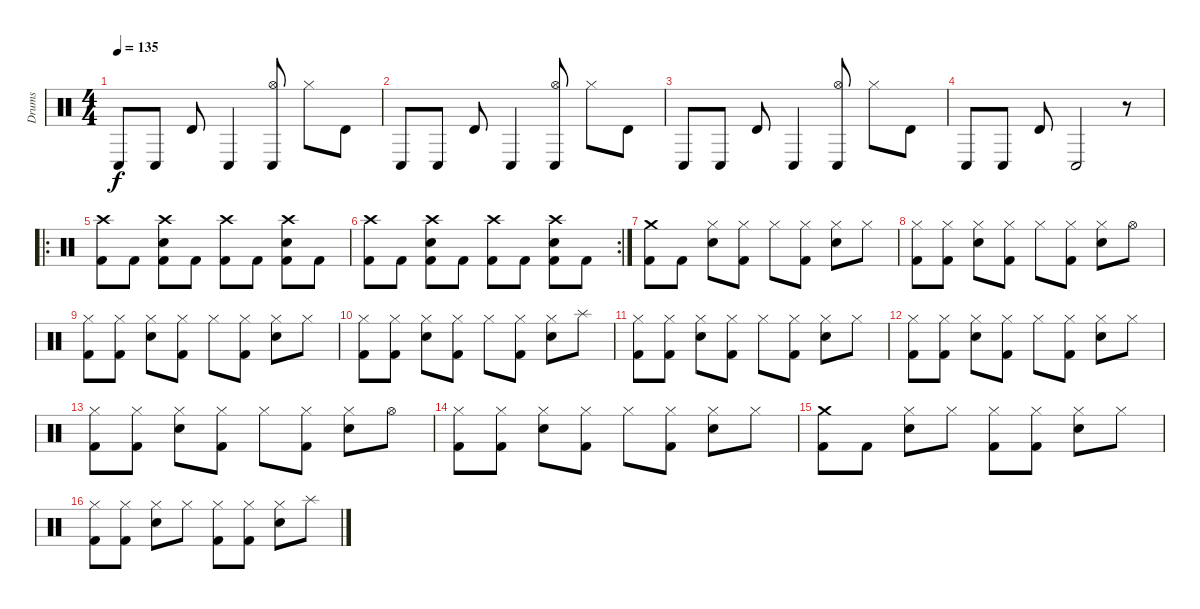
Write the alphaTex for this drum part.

\track ("Drums" "Drums") {instrument percussion}
\staff {score}
\articulation defaults
\ts (4 4)
\tempo 135
\clef neutral
\ks c "Conga low (hit)".8{dy f volume 12} "Conga low (hit)".8 "Timbale high (hit)".8 "Conga low (hit)".4
("Hi-Hat (open)" "Conga low (hit)").8 "Hi-Hat (closed)".8 "Timbale high (hit)".8 |
"Conga low (hit)".8 "Conga low (hit)".8 "Timbale high (hit)".8 "Conga low (hit)".4 ("Hi-Hat (open)" "Conga low (hit)").8 "Hi-Hat (closed)".8 "Timbale high (hit)".8 |
"Conga low (hit)".8 "Conga low (hit)".8 "Timbale high (hit)".8 "Conga low (hit)".4 ("Hi-Hat (open)" "Conga low (hit)").8 "Hi-Hat (closed)".8 "Timbale high (hit)".8 |
"Conga low (hit)".8 "Conga low (hit)".8 "Timbale high (hit)".8 "Conga low (hit)".2 r.8 |
\ro
("Crash high (hit)" "Kick (hit) 2").8{volume 15} "Kick (hit) 2".8 ("Crash high (hit)" "Electric Snare (hit)" "Kick (hit) 2").8 "Kick (hit) 2".8 ("Crash high (hit)" "Kick (hit) 2").8 "Kick (hit) 2".8 ("Crash high (hit)" "Electric Snare (hit)" "Kick (hit) 2").8 "Kick (hit) 2".8 |
\rc 2
("Crash high (hit)" "Kick (hit) 2").8 "Kick (hit) 2".8 ("Crash high (hit)" "Electric Snare (hit)" "Kick (hit) 2").8 "Kick (hit) 2".8 ("Crash high (hit)" "Kick (hit) 2").8 "Kick (hit) 2".8 ("Crash high (hit)" "Electric Snare (hit)" "Kick (hit) 2").8 "Kick (hit) 2".8 |
("Crash medium (hit)" "Kick (hit) 2").8 "Kick (hit) 2".8 ("Hi-Hat (closed)" "Electric Snare (hit)").8 ("Hi-Hat (closed)" "Kick (hit) 2").8 "Hi-Hat (closed)".8 ("Hi-Hat (closed)" "Kick (hit) 2").8 ("Hi-Hat (closed)" "Electric Snare (hit)").8 "Hi-Hat (closed)".8 |
("Hi-Hat (closed)" "Kick (hit) 2").8 ("Hi-Hat (closed)" "Kick (hit) 2").8 ("Hi-Hat (closed)" "Electric Snare (hit)").8 ("Hi-Hat (closed)" "Kick (hit) 2").8 "Hi-Hat (closed)".8 ("Hi-Hat (closed)" "Kick (hit) 2").8 ("Hi-Hat (closed)" "Electric Snare (hit)").8 "Hi-Hat (open)".8 |
("Hi-Hat (closed)" "Kick (hit) 2").8 ("Hi-Hat (closed)" "Kick (hit) 2").8 ("Hi-Hat (closed)" "Electric Snare (hit)").8 ("Hi-Hat (closed)" "Kick (hit) 2").8 "Hi-Hat (closed)".8 ("Hi-Hat (closed)" "Kick (hit) 2").8 ("Hi-Hat (closed)" "Electric Snare (hit)").8 "Hi-Hat (closed)".8 |
("Hi-Hat (closed)" "Kick (hit) 2").8 ("Hi-Hat (closed)" "Kick (hit) 2").8 ("Hi-Hat (closed)" "Electric Snare (hit)").8 ("Hi-Hat (closed)" "Kick (hit) 2").8 "Hi-Hat (closed)".8 ("Hi-Hat (closed)" "Kick (hit) 2").8 ("Hi-Hat (closed)" "Electric Snare (hit)").8 "Splash (hit)".8 |
("Hi-Hat (closed)" "Kick (hit) 2").8 ("Hi-Hat (closed)" "Kick (hit) 2").8 ("Hi-Hat (closed)" "Electric Snare (hit)").8 ("Hi-Hat (closed)" "Kick (hit) 2").8 "Hi-Hat (closed)".8 ("Hi-Hat (closed)" "Kick (hit) 2").8 ("Hi-Hat (closed)" "Electric Snare (hit)").8 "Hi-Hat (closed)".8 |
("Hi-Hat (closed)" "Kick (hit) 2").8 ("Hi-Hat (closed)" "Kick (hit) 2").8 ("Hi-Hat (closed)" "Electric Snare (hit)").8 ("Hi-Hat (closed)" "Kick (hit) 2").8 "Hi-Hat (closed)".8 ("Hi-Hat (closed)" "Kick (hit) 2").8 ("Hi-Hat (closed)" "Electric Snare (hit)").8 "Hi-Hat (closed)".8 |
("Hi-Hat (closed)" "Kick (hit) 2").8 ("Hi-Hat (closed)" "Kick (hit) 2").8 ("Hi-Hat (closed)" "Electric Snare (hit)").8 ("Hi-Hat (closed)" "Kick (hit) 2").8 "Hi-Hat (closed)".8 ("Hi-Hat (closed)" "Kick (hit) 2").8 ("Hi-Hat (closed)" "Electric Snare (hit)").8 "Hi-Hat (open)".8 |
("Hi-Hat (closed)" "Kick (hit) 2").8 ("Hi-Hat (closed)" "Kick (hit) 2").8 ("Hi-Hat (closed)" "Electric Snare (hit)").8 ("Hi-Hat (closed)" "Kick (hit) 2").8 "Hi-Hat (closed)".8 ("Hi-Hat (closed)" "Kick (hit) 2").8 ("Hi-Hat (closed)" "Electric Snare (hit)").8 "Hi-Hat (closed)".8 |
("Crash medium (hit)" "Kick (hit) 2").8 "Kick (hit) 2".8 ("Hi-Hat (closed)" "Electric Snare (hit)").8 "Hi-Hat (closed)".8 ("Hi-Hat (closed)" "Kick (hit) 2").8 ("Hi-Hat (closed)" "Kick (hit) 2").8 ("Hi-Hat (closed)" "Electric Snare (hit)").8 "Hi-Hat (closed)".8 |
("Hi-Hat (closed)" "Kick (hit) 2").8 ("Hi-Hat (closed)" "Kick (hit) 2").8 ("Hi-Hat (closed)" "Electric Snare (hit)").8 "Hi-Hat (closed)".8 ("Hi-Hat (closed)" "Kick (hit) 2").8 ("Hi-Hat (closed)" "Kick (hit) 2").8 ("Hi-Hat (closed)" "Electric Snare (hit)").8 "Splash (hit)".8
